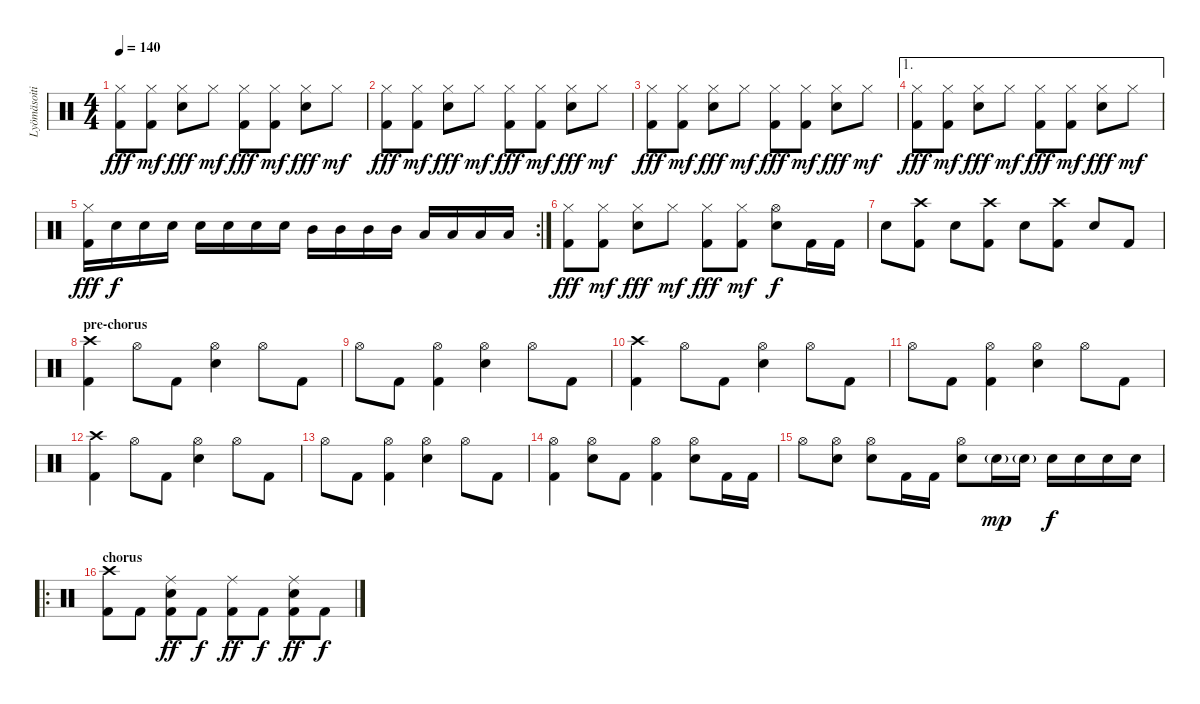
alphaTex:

\track ("Lyömäsoitin" "Lyömäsoiti") {instrument percussion}
\staff {score}
\articulation defaults
\ts (4 4)
\tempo 140
\clef neutral
\ks c
("Kick (hit) 2" "Hi-Hat (closed)").8{dy fff} ("Kick (hit) 2" "Hi-Hat (closed)").8{dy mf} ("Hi-Hat (closed)" "Snare (hit) 2").8{dy fff} "Hi-Hat (closed)".8{dy mf} ("Kick (hit) 2" "Hi-Hat (closed)").8{dy fff} ("Kick (hit) 2" "Hi-Hat (closed)").8{dy mf} ("Hi-Hat (closed)" "Snare (hit) 2").8{dy fff} "Hi-Hat (closed)".8{dy mf} |
("Kick (hit) 2" "Hi-Hat (closed)").8{dy fff} ("Kick (hit) 2" "Hi-Hat (closed)").8{dy mf} ("Hi-Hat (closed)" "Snare (hit) 2").8{dy fff} "Hi-Hat (closed)".8{dy mf} ("Kick (hit) 2" "Hi-Hat (closed)").8{dy fff} ("Kick (hit) 2" "Hi-Hat (closed)").8{dy mf} ("Hi-Hat (closed)" "Snare (hit) 2").8{dy fff} "Hi-Hat (closed)".8{dy mf} |
("Kick (hit) 2" "Hi-Hat (closed)").8{dy fff} ("Kick (hit) 2" "Hi-Hat (closed)").8{dy mf} ("Hi-Hat (closed)" "Snare (hit) 2").8{dy fff} "Hi-Hat (closed)".8{dy mf} ("Kick (hit) 2" "Hi-Hat (closed)").8{dy fff} ("Kick (hit) 2" "Hi-Hat (closed)").8{dy mf} ("Hi-Hat (closed)" "Snare (hit) 2").8{dy fff} "Hi-Hat (closed)".8{dy mf} |
\ae 1
("Kick (hit) 2" "Hi-Hat (closed)").8{dy fff} ("Kick (hit) 2" "Hi-Hat (closed)").8{dy mf} ("Hi-Hat (closed)" "Snare (hit) 2").8{dy fff} "Hi-Hat (closed)".8{dy mf} ("Kick (hit) 2" "Hi-Hat (closed)").8{dy fff} ("Kick (hit) 2" "Hi-Hat (closed)").8{dy mf} ("Hi-Hat (closed)" "Snare (hit) 2").8{dy fff} "Hi-Hat (closed)".8{dy mf} |
\rc 2
("Kick (hit) 2" "Hi-Hat (closed)").16{dy fff} "Snare (hit) 2".16{dy f} "Snare (hit) 2".16 "Snare (hit) 2".16 "Snare (hit) 2".16 "Snare (hit) 2".16 "Snare (hit) 2".16 "Snare (hit) 2".16 "Mid Tom (hit)".16 "Mid Tom (hit)".16 "Mid Tom (hit)".16 "Mid Tom (hit)".16 "Low Tom (hit)".16 "Low Tom (hit)".16 "Low Tom (hit)".16 "Low Tom (hit)".16 |
("Kick (hit) 2" "Hi-Hat (closed)").8{dy fff} ("Kick (hit) 2" "Hi-Hat (closed)").8{dy mf} ("Hi-Hat (closed)" "Snare (hit) 2").8{dy fff} "Hi-Hat (closed)".8{dy mf} ("Kick (hit) 2" "Hi-Hat (closed)").8{dy fff} ("Kick (hit) 2" "Hi-Hat (closed)").8{dy mf} ("Hi-Hat (open)" "Snare (hit) 2").8{dy f} "Kick (hit) 2".16 "Kick (hit) 2".16 |
"Snare (hit) 2".8 ("Kick (hit) 2" "Crash high (hit)").8 "Snare (hit) 2".8 ("Kick (hit) 2" "Crash high (hit)").8 "Snare (hit) 2".8 ("Kick (hit) 2" "Crash high (hit)").8 "Snare (hit) 2".8 "Kick (hit) 2".8 |
\section ("" "pre-chorus")
("Kick (hit) 2" "Crash high (hit)").4 "Hi-Hat (open)".8 "Kick (hit) 2".8 ("Hi-Hat (open)" "Snare (hit) 2").4 "Hi-Hat (open)".8 "Kick (hit) 2".8 |
"Hi-Hat (open)".8 "Kick (hit) 2".8 ("Kick (hit) 2" "Hi-Hat (open)").4 ("Hi-Hat (open)" "Snare (hit) 2").4 "Hi-Hat (open)".8 "Kick (hit) 2".8 |
("Kick (hit) 2" "Crash high (hit)").4 "Hi-Hat (open)".8 "Kick (hit) 2".8 ("Hi-Hat (open)" "Snare (hit) 2").4 "Hi-Hat (open)".8 "Kick (hit) 2".8 |
"Hi-Hat (open)".8 "Kick (hit) 2".8 ("Kick (hit) 2" "Hi-Hat (open)").4 ("Hi-Hat (open)" "Snare (hit) 2").4 "Hi-Hat (open)".8 "Kick (hit) 2".8 |
("Kick (hit) 2" "Crash high (hit)").4 "Hi-Hat (open)".8 "Kick (hit) 2".8 ("Hi-Hat (open)" "Snare (hit) 2").4 "Hi-Hat (open)".8 "Kick (hit) 2".8 |
"Hi-Hat (open)".8 "Kick (hit) 2".8 ("Kick (hit) 2" "Hi-Hat (open)").4 ("Hi-Hat (open)" "Snare (hit) 2").4 "Hi-Hat (open)".8 "Kick (hit) 2".8 |
("Kick (hit) 2" "Hi-Hat (open)").4 ("Hi-Hat (open)" "Snare (hit) 2").8 "Kick (hit) 2".8 ("Kick (hit) 2" "Hi-Hat (open)").4 ("Hi-Hat (open)" "Snare (hit) 2").8 "Kick (hit) 2".16 "Kick (hit) 2".16 |
"Hi-Hat (open)".8 ("Hi-Hat (open)" "Snare (hit) 2").8 ("Hi-Hat (open)" "Snare (hit) 2").8 "Kick (hit) 2".16 "Kick (hit) 2".16 ("Hi-Hat (open)" "Snare (hit) 2").8 "Snare (hit) 2"{g}.16{dy mp} "Snare (hit) 2"{g}.16 "Snare (hit) 2".16{dy f} "Snare (hit) 2".16 "Snare (hit) 2".16 "Snare (hit) 2".16 |
\ro
\section ("" "chorus")
("Kick (hit) 2" "Crash high (hit)").8 "Kick (hit) 2".8 ("Kick (hit) 2" "Ride (middle)" "Snare (hit) 2").8{dy ff} "Kick (hit) 2".8{dy f} ("Kick (hit) 2" "Ride (middle)").8{dy ff} "Kick (hit) 2".8{dy f} ("Kick (hit) 2" "Ride (middle)" "Snare (hit) 2").8{dy ff} "Kick (hit) 2".8{dy f}
